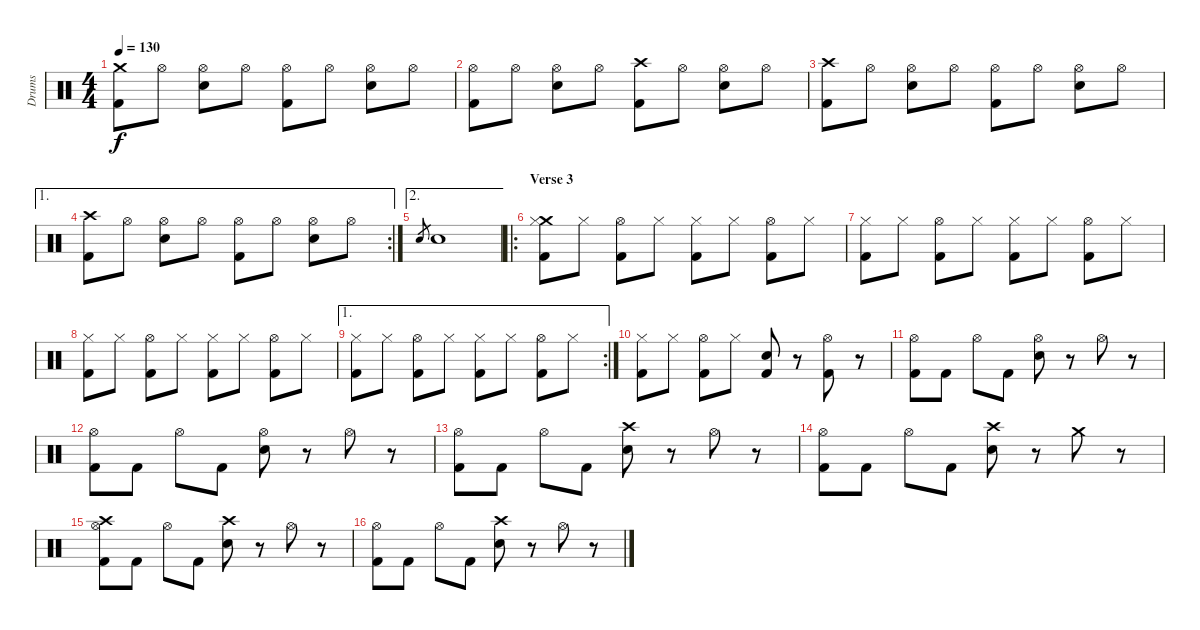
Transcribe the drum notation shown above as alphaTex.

\track ("Drums" "Drums") {instrument percussion}
\staff {score}
\articulation defaults
\ts (4 4)
\tempo 130
\clef neutral
\ks c
("Crash medium (hit)" "Kick (hit) 2").8{dy f} "Hi-Hat (open)".8 ("Hi-Hat (open)" "Electric Snare (hit)").8 "Hi-Hat (open)".8 ("Hi-Hat (open)" "Kick (hit) 2").8 "Hi-Hat (open)".8 ("Hi-Hat (open)" "Electric Snare (hit)").8 "Hi-Hat (open)".8 |
("Hi-Hat (open)" "Kick (hit) 2").8 "Hi-Hat (open)".8 ("Hi-Hat (open)" "Electric Snare (hit)").8 "Hi-Hat (open)".8 ("Crash high (hit)" "Kick (hit) 2").8 "Hi-Hat (open)".8 ("Hi-Hat (open)" "Electric Snare (hit)").8 "Hi-Hat (open)".8 |
("Crash high (hit)" "Kick (hit) 2").8 "Hi-Hat (open)".8 ("Hi-Hat (open)" "Electric Snare (hit)").8 "Hi-Hat (open)".8 ("Hi-Hat (open)" "Kick (hit) 2").8 "Hi-Hat (open)".8 ("Hi-Hat (open)" "Electric Snare (hit)").8 "Hi-Hat (open)".8 |
\ae 1
\rc 2
("Crash high (hit)" "Kick (hit) 2").8 "Hi-Hat (open)".8 ("Hi-Hat (open)" "Electric Snare (hit)").8 "Hi-Hat (open)".8 ("Hi-Hat (open)" "Kick (hit) 2").8 "Hi-Hat (open)".8 ("Hi-Hat (open)" "Electric Snare (hit)").8 "Hi-Hat (open)".8 |
\ae 2 "Electric Snare (hit)".8{gr} "Electric Snare (hit)".1
|
\ro
\section ("" "Verse 3")
("Kick (hit) 2" "Crash medium (hit)" "Hi-Hat (closed)").8 "Hi-Hat (closed)".8 ("Kick (hit) 2" "Hi-Hat (open)").8 "Hi-Hat (closed)".8 ("Kick (hit) 2" "Hi-Hat (closed)").8 "Hi-Hat (closed)".8 ("Kick (hit) 2" "Hi-Hat (open)").8 "Hi-Hat (closed)".8 |
("Kick (hit) 2" "Hi-Hat (closed)").8 "Hi-Hat (closed)".8 ("Kick (hit) 2" "Hi-Hat (open)").8 "Hi-Hat (closed)".8 ("Kick (hit) 2" "Hi-Hat (closed)").8 "Hi-Hat (closed)".8 ("Kick (hit) 2" "Hi-Hat (open)").8 "Hi-Hat (closed)".8 |
("Kick (hit) 2" "Hi-Hat (closed)").8 "Hi-Hat (closed)".8 ("Kick (hit) 2" "Hi-Hat (open)").8 "Hi-Hat (closed)".8 ("Kick (hit) 2" "Hi-Hat (closed)").8 "Hi-Hat (closed)".8 ("Kick (hit) 2" "Hi-Hat (open)").8 "Hi-Hat (closed)".8 |
\ae 1
\rc 2
("Kick (hit) 2" "Hi-Hat (closed)").8 "Hi-Hat (closed)".8 ("Kick (hit) 2" "Hi-Hat (open)").8 "Hi-Hat (closed)".8 ("Kick (hit) 2" "Hi-Hat (closed)").8 "Hi-Hat (closed)".8 ("Kick (hit) 2" "Hi-Hat (open)").8 "Hi-Hat (closed)".8 |
("Kick (hit) 2" "Hi-Hat (closed)").8 "Hi-Hat (closed)".8 ("Kick (hit) 2" "Hi-Hat (open)").8 "Hi-Hat (closed)".8 ("Kick (hit) 2" "Electric Snare (hit)").8 r.8 ("Kick (hit) 2" "Hi-Hat (open)").8 r.8 |
("Hi-Hat (open)" "Kick (hit) 2").8 "Kick (hit) 2".8 "Hi-Hat (open)".8 "Kick (hit) 2".8 ("Hi-Hat (open)" "Electric Snare (hit)").8 r.8 "Hi-Hat (open)".8 r.8 |
("Hi-Hat (open)" "Kick (hit) 2").8 "Kick (hit) 2".8 "Hi-Hat (open)".8 "Kick (hit) 2".8 ("Hi-Hat (open)" "Electric Snare (hit)").8 r.8 "Hi-Hat (open)".8 r.8 |
("Hi-Hat (open)" "Kick (hit) 2").8 "Kick (hit) 2".8 "Hi-Hat (open)".8 "Kick (hit) 2".8 ("Crash high (hit)" "Electric Snare (hit)").8 r.8 "Hi-Hat (open)".8 r.8 |
("Hi-Hat (open)" "Kick (hit) 2").8 "Kick (hit) 2".8 "Hi-Hat (open)".8 "Kick (hit) 2".8 ("Crash high (hit)" "Electric Snare (hit)").8 r.8 "Crash medium (hit)".8 r.8 |
("Hi-Hat (open)" "Crash high (hit)" "Kick (hit) 2").8 "Kick (hit) 2".8 "Hi-Hat (open)".8 "Kick (hit) 2".8 ("Crash high (hit)" "Electric Snare (hit)").8 r.8 "Hi-Hat (open)".8 r.8 |
("Hi-Hat (open)" "Kick (hit) 2").8 "Kick (hit) 2".8 "Hi-Hat (open)".8 "Kick (hit) 2".8 ("Crash high (hit)" "Electric Snare (hit)").8 r.8 "Hi-Hat (open)".8 r.8
